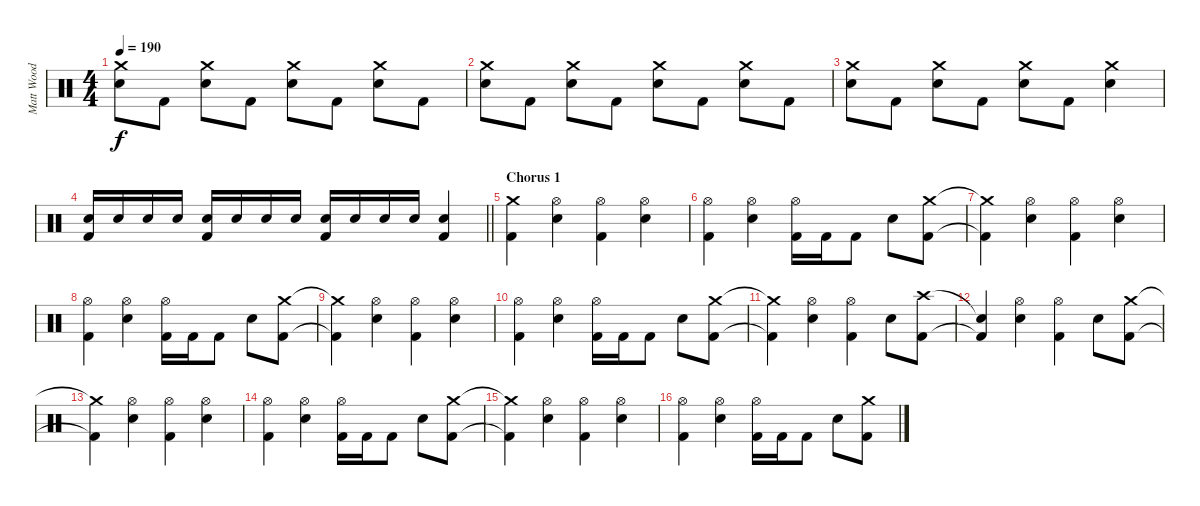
\track ("Matt Wood" "Matt Wood") {instrument percussion}
\staff {score}
\articulation defaults
\ts (4 4)
\tempo 190
\clef neutral
\ks c
("Crash medium (hit)" "Snare (hit) 2").8{dy f} "Kick (hit) 2".8 ("Crash medium (hit)" "Snare (hit) 2").8 "Kick (hit) 2".8 ("Crash medium (hit)" "Snare (hit) 2").8 "Kick (hit) 2".8 ("Crash medium (hit)" "Snare (hit) 2").8 "Kick (hit) 2".8 |
("Crash medium (hit)" "Snare (hit) 2").8 "Kick (hit) 2".8 ("Crash medium (hit)" "Snare (hit) 2").8 "Kick (hit) 2".8 ("Crash medium (hit)" "Snare (hit) 2").8 "Kick (hit) 2".8 ("Crash medium (hit)" "Snare (hit) 2").8 "Kick (hit) 2".8 |
("Crash medium (hit)" "Snare (hit) 2").8 "Kick (hit) 2".8 ("Crash medium (hit)" "Snare (hit) 2").8 "Kick (hit) 2".8 ("Crash medium (hit)" "Snare (hit) 2").8 "Kick (hit) 2".8 ("Crash medium (hit)" "Snare (hit) 2").4 |
\barLineRight lightlight
("Snare (hit) 2" "Kick (hit) 2").16 "Snare (hit) 2".16 "Snare (hit) 2".16 "Snare (hit) 2".16 ("Snare (hit) 2" "Kick (hit) 2").16 "Snare (hit) 2".16 "Snare (hit) 2".16 "Snare (hit) 2".16 ("Snare (hit) 2" "Kick (hit) 2").16 "Snare (hit) 2".16 "Snare (hit) 2".16 "Snare (hit) 2".16 ("Snare (hit) 2" "Kick (hit) 2").4 |
\section ("" "Chorus 1")
("Crash medium (hit)" "Kick (hit) 2").4 ("Hi-Hat (open)" "Snare (hit) 2").4 ("Hi-Hat (open)" "Kick (hit) 2").4 ("Hi-Hat (open)" "Snare (hit) 2").4 |
("Hi-Hat (open)" "Kick (hit) 2").4 ("Hi-Hat (open)" "Snare (hit) 2").4 ("Hi-Hat (open)" "Kick (hit) 2").16 "Kick (hit) 2".16 "Kick (hit) 2".8 "Snare (hit) 2".8 ("Crash medium (hit)" "Kick (hit) 2").8 |
("Crash medium (hit)"{t} "Kick (hit) 2"{t}).4 ("Hi-Hat (open)" "Snare (hit) 2").4 ("Hi-Hat (open)" "Kick (hit) 2").4 ("Hi-Hat (open)" "Snare (hit) 2").4 |
("Hi-Hat (open)" "Kick (hit) 2").4 ("Hi-Hat (open)" "Snare (hit) 2").4 ("Hi-Hat (open)" "Kick (hit) 2").16 "Kick (hit) 2".16 "Kick (hit) 2".8 "Snare (hit) 2".8 ("Crash medium (hit)" "Kick (hit) 2").8 |
("Crash medium (hit)"{t} "Kick (hit) 2"{t}).4 ("Hi-Hat (open)" "Snare (hit) 2").4 ("Hi-Hat (open)" "Kick (hit) 2").4 ("Hi-Hat (open)" "Snare (hit) 2").4 |
("Hi-Hat (open)" "Kick (hit) 2").4 ("Hi-Hat (open)" "Snare (hit) 2").4 ("Hi-Hat (open)" "Kick (hit) 2").16 "Kick (hit) 2".16 "Kick (hit) 2".8 "Snare (hit) 2".8 ("Crash medium (hit)" "Kick (hit) 2").8 |
("Crash medium (hit)"{t} "Kick (hit) 2"{t}).4 ("Hi-Hat (open)" "Snare (hit) 2").4 ("Hi-Hat (open)" "Kick (hit) 2").4 "Snare (hit) 2".8 ("Crash high (hit)" "Kick (hit) 2").8 |
("Snare (hit)"{t} "Kick (hit) 2"{t}).4 ("Hi-Hat (open)" "Snare (hit) 2").4 ("Hi-Hat (open)" "Kick (hit) 2").4 "Snare (hit) 2".8 ("Crash medium (hit)" "Kick (hit) 2").8 |
("Crash medium (hit)"{t} "Kick (hit) 2"{t}).4 ("Hi-Hat (open)" "Snare (hit) 2").4 ("Hi-Hat (open)" "Kick (hit) 2").4 ("Hi-Hat (open)" "Snare (hit) 2").4 |
("Hi-Hat (open)" "Kick (hit) 2").4 ("Hi-Hat (open)" "Snare (hit) 2").4 ("Hi-Hat (open)" "Kick (hit) 2").16 "Kick (hit) 2".16 "Kick (hit) 2".8 "Snare (hit) 2".8 ("Crash medium (hit)" "Kick (hit) 2").8 |
("Crash medium (hit)"{t} "Kick (hit) 2"{t}).4 ("Hi-Hat (open)" "Snare (hit) 2").4 ("Hi-Hat (open)" "Kick (hit) 2").4 ("Hi-Hat (open)" "Snare (hit) 2").4 |
("Hi-Hat (open)" "Kick (hit) 2").4 ("Hi-Hat (open)" "Snare (hit) 2").4 ("Hi-Hat (open)" "Kick (hit) 2").16 "Kick (hit) 2".16 "Kick (hit) 2".8 "Snare (hit) 2".8 ("Crash medium (hit)" "Kick (hit) 2").8
